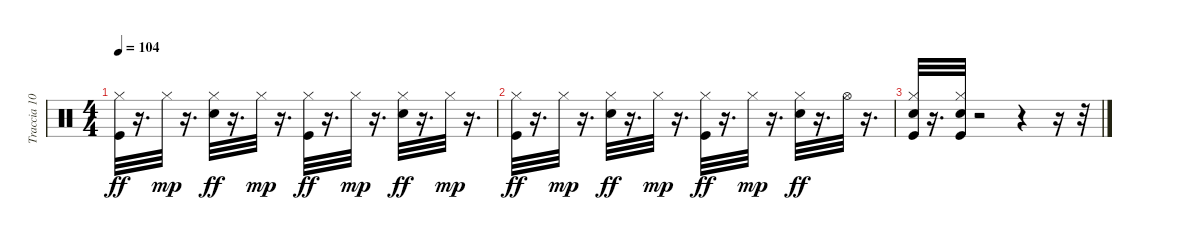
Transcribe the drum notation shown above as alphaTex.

\track ("Traccia 10" "Traccia 10") {instrument percussion}
\staff {score}
\articulation defaults
\ts (4 4)
\tempo 104
\clef neutral
\ks c
("Kick (hit)" "Hi-Hat (closed)").32{dy ff} r.16{d} "Hi-Hat (closed)".32{dy mp} r.16{d} ("Snare (hit) 2" "Hi-Hat (closed)").32{dy ff} r.16{d} "Hi-Hat (closed)".32{dy mp} r.16{d} ("Kick (hit)" "Hi-Hat (closed)").32{dy ff} r.16{d} "Hi-Hat (closed)".32{dy mp} r.16{d} ("Snare (hit) 2" "Hi-Hat (closed)").32{dy ff} r.16{d} "Hi-Hat (closed)".32{dy mp} r.16{d} |
("Kick (hit)" "Hi-Hat (closed)").32{dy ff} r.16{d} "Hi-Hat (closed)".32{dy mp} r.16{d} ("Snare (hit) 2" "Hi-Hat (closed)").32{dy ff} r.16{d} "Hi-Hat (closed)".32{dy mp} r.16{d} ("Kick (hit)" "Hi-Hat (closed)").32{dy ff} r.16{d} "Hi-Hat (closed)".32{dy mp} r.16{d} ("Snare (hit) 2" "Hi-Hat (closed)").32{dy ff} r.16{d} "Hi-Hat (open)".32 r.16{d} |
("Kick (hit)" "Snare (hit) 2" "Hi-Hat (closed)").32 r.16{d} ("Kick (hit)" "Snare (hit) 2" "Hi-Hat (closed)").32 r.2 r.4 r.16 r.32
